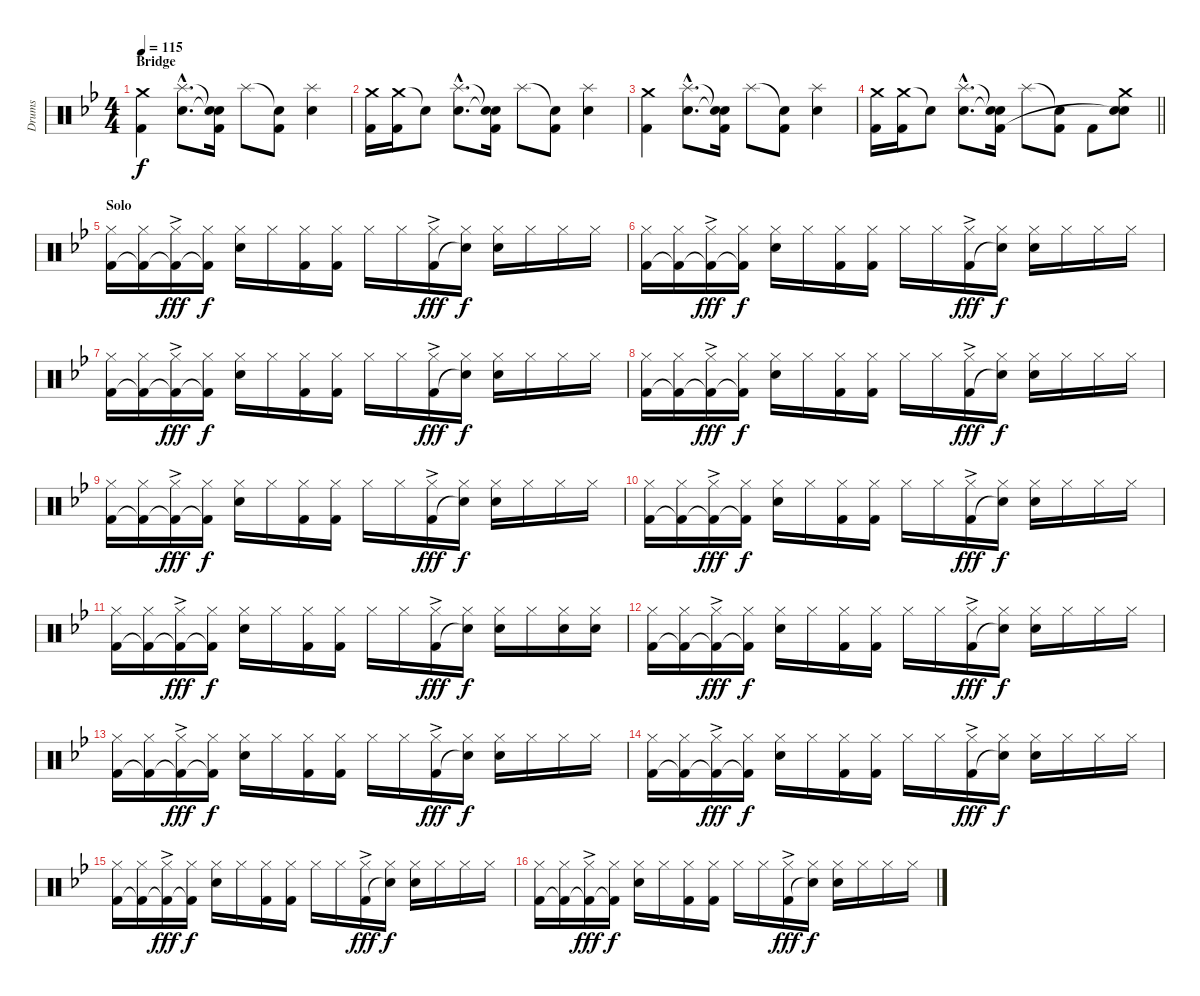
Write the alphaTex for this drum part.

\track ("Drums" "Drums") {instrument percussion}
\staff {score}
\articulation defaults
\ts (4 4)
\section ("" "Bridge")
\tempo 115
\clef neutral
\ks bb
("Crash medium (hit)" "Kick (hit) 2").4{dy f} ("Splash (hit)"{hac} "Electric Snare (hit)"{hac}).8{d} ("Snare (hit)"{t} "Snare (hit)"{t} "Kick (hit) 2").16 "Splash (hit)".8 ("Snare (hit)"{t} "Kick (hit) 2").8 ("Splash (hit)" "Electric Snare (hit)").4 |
("Crash medium (hit)" "Kick (hit) 2").16 ("Crash medium (hit)" "Kick (hit) 2").16 "Snare (hit)"{t}.8 ("Splash (hit)"{hac} "Electric Snare (hit)"{hac}).8{d} ("Snare (hit)"{t} "Snare (hit)"{t} "Kick (hit) 2").16 "Splash (hit)".8 ("Snare (hit)"{t} "Kick (hit) 2").8 ("Splash (hit)" "Electric Snare (hit)").4 |
("Crash medium (hit)" "Kick (hit) 2").4 ("Splash (hit)"{hac} "Electric Snare (hit)"{hac}).8{d} ("Snare (hit)"{t} "Snare (hit)"{t} "Kick (hit) 2").16 "Splash (hit)".8 ("Snare (hit)"{t} "Kick (hit) 2").8 ("Splash (hit)" "Electric Snare (hit)").4 |
\barLineRight lightlight
("Crash medium (hit)" "Kick (hit) 2").16 ("Crash medium (hit)" "Kick (hit) 2").16 "Snare (hit)"{t}.8 ("Splash (hit)"{hac} "Electric Snare (hit)"{hac}).8{d} ("Snare (hit)"{t} "Snare (hit)"{t} "Kick (hit) 2").16 "Splash (hit)".8 ("Snare (hit)"{t} "Kick (hit) 2").8 "Kick (hit) 2".8 ("Crash medium (hit)" "Electric Snare (hit)" "Snare (hit)"{t}).8 |
\section ("" "Solo")
("Hi-Hat (closed)" "Kick (hit) 2").16 ("Hi-Hat (closed)" "Kick (hit) 2"{t}).16 ("Hi-Hat (closed)"{ac} "Kick (hit) 2"{t}).16{dy fff} ("Hi-Hat (closed)" "Kick (hit) 2"{t}).16{dy f} ("Hi-Hat (closed)" "Electric Snare (hit)").16 "Hi-Hat (closed)".16 ("Hi-Hat (closed)" "Kick (hit) 2").16 ("Hi-Hat (closed)" "Kick (hit) 2").16 "Hi-Hat (closed)".16 "Hi-Hat (closed)".16 ("Hi-Hat (closed)"{ac} "Kick (hit) 2").16{dy fff} ("Hi-Hat (closed)" "Snare (hit)"{t}).16{dy f} ("Hi-Hat (closed)" "Electric Snare (hit)").16 "Hi-Hat (closed)".16 "Hi-Hat (closed)".16 "Hi-Hat (closed)".16 |
("Hi-Hat (closed)" "Kick (hit) 2").16 ("Hi-Hat (closed)" "Kick (hit) 2"{t}).16 ("Hi-Hat (closed)"{ac} "Kick (hit) 2"{t}).16{dy fff} ("Hi-Hat (closed)" "Kick (hit) 2"{t}).16{dy f} ("Hi-Hat (closed)" "Electric Snare (hit)").16 "Hi-Hat (closed)".16 ("Hi-Hat (closed)" "Kick (hit) 2").16 ("Hi-Hat (closed)" "Kick (hit) 2").16 "Hi-Hat (closed)".16 "Hi-Hat (closed)".16 ("Hi-Hat (closed)"{ac} "Kick (hit) 2").16{dy fff} ("Hi-Hat (closed)" "Snare (hit)"{t}).16{dy f} ("Hi-Hat (closed)" "Electric Snare (hit)").16 "Hi-Hat (closed)".16 "Hi-Hat (closed)".16 "Hi-Hat (closed)".16 |
("Hi-Hat (closed)" "Kick (hit) 2").16 ("Hi-Hat (closed)" "Kick (hit) 2"{t}).16 ("Hi-Hat (closed)"{ac} "Kick (hit) 2"{t}).16{dy fff} ("Hi-Hat (closed)" "Kick (hit) 2"{t}).16{dy f} ("Hi-Hat (closed)" "Electric Snare (hit)").16 "Hi-Hat (closed)".16 ("Hi-Hat (closed)" "Kick (hit) 2").16 ("Hi-Hat (closed)" "Kick (hit) 2").16 "Hi-Hat (closed)".16 "Hi-Hat (closed)".16 ("Hi-Hat (closed)"{ac} "Kick (hit) 2").16{dy fff} ("Hi-Hat (closed)" "Snare (hit)"{t}).16{dy f} ("Hi-Hat (closed)" "Electric Snare (hit)").16 "Hi-Hat (closed)".16 "Hi-Hat (closed)".16 "Hi-Hat (closed)".16 |
("Hi-Hat (closed)" "Kick (hit) 2").16 ("Hi-Hat (closed)" "Kick (hit) 2"{t}).16 ("Hi-Hat (closed)"{ac} "Kick (hit) 2"{t}).16{dy fff} ("Hi-Hat (closed)" "Kick (hit) 2"{t}).16{dy f} ("Hi-Hat (closed)" "Electric Snare (hit)").16 "Hi-Hat (closed)".16 ("Hi-Hat (closed)" "Kick (hit) 2").16 ("Hi-Hat (closed)" "Kick (hit) 2").16 "Hi-Hat (closed)".16 "Hi-Hat (closed)".16 ("Hi-Hat (closed)"{ac} "Kick (hit) 2").16{dy fff} ("Hi-Hat (closed)" "Snare (hit)"{t}).16{dy f} ("Hi-Hat (closed)" "Electric Snare (hit)").16 "Hi-Hat (closed)".16 "Hi-Hat (closed)".16 "Hi-Hat (closed)".16 |
("Hi-Hat (closed)" "Kick (hit) 2").16 ("Hi-Hat (closed)" "Kick (hit) 2"{t}).16 ("Hi-Hat (closed)"{ac} "Kick (hit) 2"{t}).16{dy fff} ("Hi-Hat (closed)" "Kick (hit) 2"{t}).16{dy f} ("Hi-Hat (closed)" "Electric Snare (hit)").16 "Hi-Hat (closed)".16 ("Hi-Hat (closed)" "Kick (hit) 2").16 ("Hi-Hat (closed)" "Kick (hit) 2").16 "Hi-Hat (closed)".16 "Hi-Hat (closed)".16 ("Hi-Hat (closed)"{ac} "Kick (hit) 2").16{dy fff} ("Hi-Hat (closed)" "Snare (hit)"{t}).16{dy f} ("Hi-Hat (closed)" "Electric Snare (hit)").16 "Hi-Hat (closed)".16 "Hi-Hat (closed)".16 "Hi-Hat (closed)".16 |
("Hi-Hat (closed)" "Kick (hit) 2").16 ("Hi-Hat (closed)" "Kick (hit) 2"{t}).16 ("Hi-Hat (closed)"{ac} "Kick (hit) 2"{t}).16{dy fff} ("Hi-Hat (closed)" "Kick (hit) 2"{t}).16{dy f} ("Hi-Hat (closed)" "Electric Snare (hit)").16 "Hi-Hat (closed)".16 ("Hi-Hat (closed)" "Kick (hit) 2").16 ("Hi-Hat (closed)" "Kick (hit) 2").16 "Hi-Hat (closed)".16 "Hi-Hat (closed)".16 ("Hi-Hat (closed)"{ac} "Kick (hit) 2").16{dy fff} ("Hi-Hat (closed)" "Snare (hit)"{t}).16{dy f} ("Hi-Hat (closed)" "Electric Snare (hit)").16 "Hi-Hat (closed)".16 "Hi-Hat (closed)".16 "Hi-Hat (closed)".16 |
("Hi-Hat (closed)" "Kick (hit) 2").16 ("Hi-Hat (closed)" "Kick (hit) 2"{t}).16 ("Hi-Hat (closed)"{ac} "Kick (hit) 2"{t}).16{dy fff} ("Hi-Hat (closed)" "Kick (hit) 2"{t}).16{dy f} ("Hi-Hat (closed)" "Electric Snare (hit)").16 "Hi-Hat (closed)".16 ("Hi-Hat (closed)" "Kick (hit) 2").16 ("Hi-Hat (closed)" "Kick (hit) 2").16 "Hi-Hat (closed)".16 "Hi-Hat (closed)".16 ("Hi-Hat (closed)"{ac} "Kick (hit) 2").16{dy fff} ("Hi-Hat (closed)" "Snare (hit)"{t}).16{dy f} ("Hi-Hat (closed)" "Electric Snare (hit)").16 "Hi-Hat (closed)".16 ("Hi-Hat (closed)" "Electric Snare (hit)").16 ("Hi-Hat (closed)" "Electric Snare (hit)").16 |
("Hi-Hat (closed)" "Kick (hit) 2").16 ("Hi-Hat (closed)" "Kick (hit) 2"{t}).16 ("Hi-Hat (closed)"{ac} "Kick (hit) 2"{t}).16{dy fff} ("Hi-Hat (closed)" "Kick (hit) 2"{t}).16{dy f} ("Hi-Hat (closed)" "Electric Snare (hit)").16 "Hi-Hat (closed)".16 ("Hi-Hat (closed)" "Kick (hit) 2").16 ("Hi-Hat (closed)" "Kick (hit) 2").16 "Hi-Hat (closed)".16 "Hi-Hat (closed)".16 ("Hi-Hat (closed)"{ac} "Kick (hit) 2").16{dy fff} ("Hi-Hat (closed)" "Snare (hit)"{t}).16{dy f} ("Hi-Hat (closed)" "Electric Snare (hit)").16 "Hi-Hat (closed)".16 "Hi-Hat (closed)".16 "Hi-Hat (closed)".16 |
("Hi-Hat (closed)" "Kick (hit) 2").16 ("Hi-Hat (closed)" "Kick (hit) 2"{t}).16 ("Hi-Hat (closed)"{ac} "Kick (hit) 2"{t}).16{dy fff} ("Hi-Hat (closed)" "Kick (hit) 2"{t}).16{dy f} ("Hi-Hat (closed)" "Electric Snare (hit)").16 "Hi-Hat (closed)".16 ("Hi-Hat (closed)" "Kick (hit) 2").16 ("Hi-Hat (closed)" "Kick (hit) 2").16 "Hi-Hat (closed)".16 "Hi-Hat (closed)".16 ("Hi-Hat (closed)"{ac} "Kick (hit) 2").16{dy fff} ("Hi-Hat (closed)" "Snare (hit)"{t}).16{dy f} ("Hi-Hat (closed)" "Electric Snare (hit)").16 "Hi-Hat (closed)".16 "Hi-Hat (closed)".16 "Hi-Hat (closed)".16 |
("Hi-Hat (closed)" "Kick (hit) 2").16 ("Hi-Hat (closed)" "Kick (hit) 2"{t}).16 ("Hi-Hat (closed)"{ac} "Kick (hit) 2"{t}).16{dy fff} ("Hi-Hat (closed)" "Kick (hit) 2"{t}).16{dy f} ("Hi-Hat (closed)" "Electric Snare (hit)").16 "Hi-Hat (closed)".16 ("Hi-Hat (closed)" "Kick (hit) 2").16 ("Hi-Hat (closed)" "Kick (hit) 2").16 "Hi-Hat (closed)".16 "Hi-Hat (closed)".16 ("Hi-Hat (closed)"{ac} "Kick (hit) 2").16{dy fff} ("Hi-Hat (closed)" "Snare (hit)"{t}).16{dy f} ("Hi-Hat (closed)" "Electric Snare (hit)").16 "Hi-Hat (closed)".16 "Hi-Hat (closed)".16 "Hi-Hat (closed)".16 |
("Hi-Hat (closed)" "Kick (hit) 2").16 ("Hi-Hat (closed)" "Kick (hit) 2"{t}).16 ("Hi-Hat (closed)"{ac} "Kick (hit) 2"{t}).16{dy fff} ("Hi-Hat (closed)" "Kick (hit) 2"{t}).16{dy f} ("Hi-Hat (closed)" "Electric Snare (hit)").16 "Hi-Hat (closed)".16 ("Hi-Hat (closed)" "Kick (hit) 2").16 ("Hi-Hat (closed)" "Kick (hit) 2").16 "Hi-Hat (closed)".16 "Hi-Hat (closed)".16 ("Hi-Hat (closed)"{ac} "Kick (hit) 2").16{dy fff} ("Hi-Hat (closed)" "Snare (hit)"{t}).16{dy f} ("Hi-Hat (closed)" "Electric Snare (hit)").16 "Hi-Hat (closed)".16 "Hi-Hat (closed)".16 "Hi-Hat (closed)".16 |
("Hi-Hat (closed)" "Kick (hit) 2").16 ("Hi-Hat (closed)" "Kick (hit) 2"{t}).16 ("Hi-Hat (closed)"{ac} "Kick (hit) 2"{t}).16{dy fff} ("Hi-Hat (closed)" "Kick (hit) 2"{t}).16{dy f} ("Hi-Hat (closed)" "Electric Snare (hit)").16 "Hi-Hat (closed)".16 ("Hi-Hat (closed)" "Kick (hit) 2").16 ("Hi-Hat (closed)" "Kick (hit) 2").16 "Hi-Hat (closed)".16 "Hi-Hat (closed)".16 ("Hi-Hat (closed)"{ac} "Kick (hit) 2").16{dy fff} ("Hi-Hat (closed)" "Snare (hit)"{t}).16{dy f} ("Hi-Hat (closed)" "Electric Snare (hit)").16 "Hi-Hat (closed)".16 "Hi-Hat (closed)".16 "Hi-Hat (closed)".16
